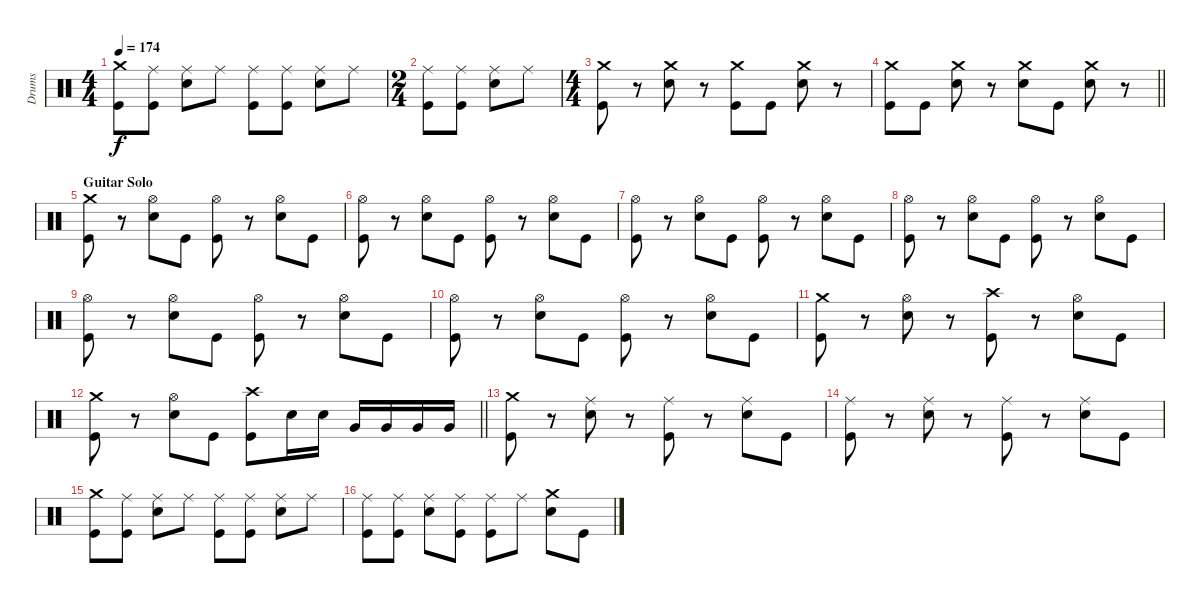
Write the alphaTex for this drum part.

\track ("Drums" "Drums") {instrument percussion}
\staff {score}
\articulation defaults
\ts (4 4)
\tempo 174
\clef neutral
\ks c
("Crash medium (hit)" "Kick (hit)").8{dy f} ("Ride (middle)" "Kick (hit)").8 ("Ride (middle)" "Snare (hit) 2").8 "Ride (middle)".8 ("Ride (middle)" "Kick (hit)").8 ("Ride (middle)" "Kick (hit)").8 ("Ride (middle)" "Snare (hit) 2").8 "Ride (middle)".8 |
\ts (2 4)
("Ride (middle)" "Kick (hit)").8 ("Ride (middle)" "Kick (hit)").8 ("Ride (middle)" "Snare (hit) 2").8 "Ride (middle)".8 |
\ts (4 4)
("Crash medium (hit)" "Kick (hit)").8 r.8 ("Crash medium (hit)" "Snare (hit) 2").8 r.8 ("Crash medium (hit)" "Kick (hit)").8 "Kick (hit)".8 ("Crash medium (hit)" "Snare (hit) 2").8 r.8 |
\barLineRight lightlight
("Crash medium (hit)" "Kick (hit)").8 "Kick (hit)".8 ("Crash medium (hit)" "Snare (hit) 2").8 r.8 ("Crash medium (hit)" "Snare (hit) 2").8 "Kick (hit)".8 ("Crash medium (hit)" "Snare (hit) 2").8 r.8 |
\section ("" "Guitar Solo")
("Crash medium (hit)" "Kick (hit)").8 r.8 ("Hi-Hat (open)" "Snare (hit) 2").8 "Kick (hit)".8 ("Hi-Hat (open)" "Kick (hit)").8 r.8 ("Hi-Hat (open)" "Snare (hit) 2").8 "Kick (hit)".8 |
("Hi-Hat (open)" "Kick (hit)").8 r.8 ("Hi-Hat (open)" "Snare (hit) 2").8 "Kick (hit)".8 ("Hi-Hat (open)" "Kick (hit)").8 r.8 ("Hi-Hat (open)" "Snare (hit) 2").8 "Kick (hit)".8 |
("Hi-Hat (open)" "Kick (hit)").8 r.8 ("Hi-Hat (open)" "Snare (hit) 2").8 "Kick (hit)".8 ("Hi-Hat (open)" "Kick (hit)").8 r.8 ("Hi-Hat (open)" "Snare (hit) 2").8 "Kick (hit)".8 |
("Hi-Hat (open)" "Kick (hit)").8 r.8 ("Hi-Hat (open)" "Snare (hit) 2").8 "Kick (hit)".8 ("Hi-Hat (open)" "Kick (hit)").8 r.8 ("Hi-Hat (open)" "Snare (hit) 2").8 "Kick (hit)".8 |
("Hi-Hat (open)" "Kick (hit)").8 r.8 ("Hi-Hat (open)" "Snare (hit) 2").8 "Kick (hit)".8 ("Hi-Hat (open)" "Kick (hit)").8 r.8 ("Hi-Hat (open)" "Snare (hit) 2").8 "Kick (hit)".8 |
("Hi-Hat (open)" "Kick (hit)").8 r.8 ("Hi-Hat (open)" "Snare (hit) 2").8 "Kick (hit)".8 ("Hi-Hat (open)" "Kick (hit)").8 r.8 ("Hi-Hat (open)" "Snare (hit) 2").8 "Kick (hit)".8 |
("Crash medium (hit)" "Kick (hit)").8 r.8 ("Hi-Hat (open)" "Snare (hit) 2").8 r.8 ("Crash high (hit)" "Kick (hit)").8 r.8 ("Hi-Hat (open)" "Snare (hit) 2").8 "Kick (hit)".8 |
\barLineRight lightlight
("Crash medium (hit)" "Kick (hit)").8 r.8 ("Hi-Hat (open)" "Snare (hit) 2").8 "Kick (hit)".8 ("Crash high (hit)" "Kick (hit)").8 "Snare (hit) 2".16 "Snare (hit) 2".16 "Very Low Tom (hit)".16 "Very Low Tom (hit)".16 "Very Low Tom (hit)".16 "Very Low Tom (hit)".16 |
("Crash medium (hit)" "Kick (hit)").8 r.8 ("Ride (middle)" "Snare (hit) 2").8 r.8 ("Ride (middle)" "Kick (hit)").8 r.8 ("Ride (middle)" "Snare (hit) 2").8 "Kick (hit)".8 |
("Ride (middle)" "Kick (hit)").8 r.8 ("Ride (middle)" "Snare (hit) 2").8 r.8 ("Ride (middle)" "Kick (hit)").8 r.8 ("Ride (middle)" "Snare (hit) 2").8 "Kick (hit)".8 |
("Crash medium (hit)" "Kick (hit)").8 ("Ride (middle)" "Kick (hit)").8 ("Ride (middle)" "Snare (hit) 2").8 "Ride (middle)".8 ("Ride (middle)" "Kick (hit)").8 ("Ride (middle)" "Kick (hit)").8 ("Ride (middle)" "Snare (hit) 2").8 "Ride (middle)".8 |
("Ride (middle)" "Kick (hit)").8 ("Ride (middle)" "Kick (hit)").8 ("Ride (middle)" "Snare (hit) 2").8 ("Ride (middle)" "Kick (hit)").8 ("Ride (middle)" "Kick (hit)").8 "Ride (middle)".8 ("Crash medium (hit)" "Snare (hit) 2").8 "Kick (hit)".8
